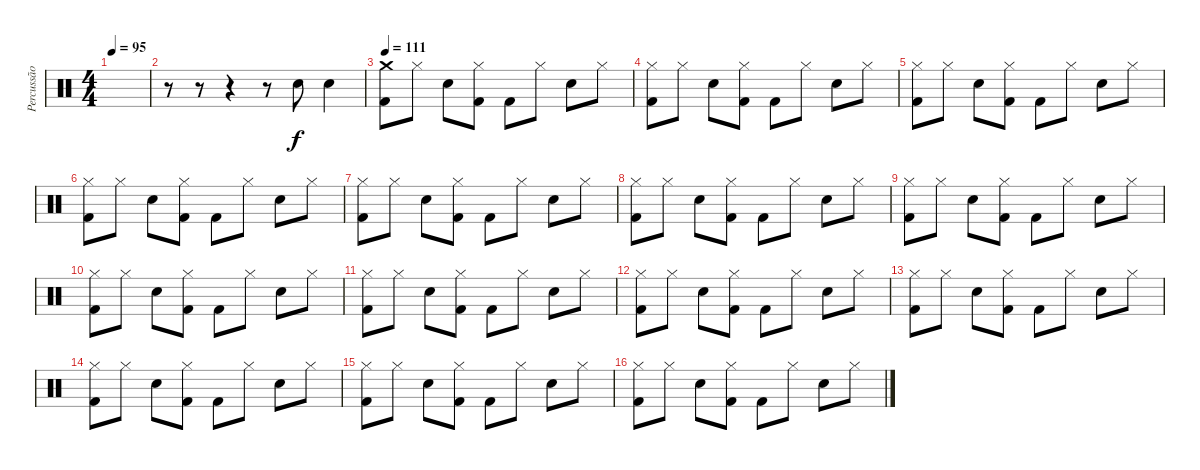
\track ("Percussão" "Percussão") {instrument percussion}
\staff {score}
\articulation defaults
\ts (4 4)
\tempo 95
\clef neutral
\ks c
|
r.8 r.8 r.4 r.8 "Electric Snare (hit)".8 "Electric Snare (hit)".4 |
\tempo 111
("Crash medium (hit)" "Kick (hit) 2").8 "Hi-Hat (closed)".8 "Electric Snare (hit)".8 ("Hi-Hat (closed)" "Kick (hit) 2").8 "Kick (hit) 2".8 "Hi-Hat (closed)".8 "Electric Snare (hit)".8 "Hi-Hat (closed)".8 |
("Hi-Hat (closed)" "Kick (hit) 2").8 "Hi-Hat (closed)".8 "Electric Snare (hit)".8 ("Hi-Hat (closed)" "Kick (hit) 2").8 "Kick (hit) 2".8 "Hi-Hat (closed)".8 "Electric Snare (hit)".8 "Hi-Hat (closed)".8 |
("Hi-Hat (closed)" "Kick (hit) 2").8 "Hi-Hat (closed)".8 "Electric Snare (hit)".8 ("Hi-Hat (closed)" "Kick (hit) 2").8 "Kick (hit) 2".8 "Hi-Hat (closed)".8 "Electric Snare (hit)".8 "Hi-Hat (closed)".8 |
("Hi-Hat (closed)" "Kick (hit) 2").8 "Hi-Hat (closed)".8 "Electric Snare (hit)".8 ("Hi-Hat (closed)" "Kick (hit) 2").8 "Kick (hit) 2".8 "Hi-Hat (closed)".8 "Electric Snare (hit)".8 "Hi-Hat (closed)".8 |
("Hi-Hat (closed)" "Kick (hit) 2").8 "Hi-Hat (closed)".8 "Electric Snare (hit)".8 ("Hi-Hat (closed)" "Kick (hit) 2").8 "Kick (hit) 2".8 "Hi-Hat (closed)".8 "Electric Snare (hit)".8 "Hi-Hat (closed)".8 |
("Hi-Hat (closed)" "Kick (hit) 2").8 "Hi-Hat (closed)".8 "Electric Snare (hit)".8 ("Hi-Hat (closed)" "Kick (hit) 2").8 "Kick (hit) 2".8 "Hi-Hat (closed)".8 "Electric Snare (hit)".8 "Hi-Hat (closed)".8 |
("Hi-Hat (closed)" "Kick (hit) 2").8 "Hi-Hat (closed)".8 "Electric Snare (hit)".8 ("Hi-Hat (closed)" "Kick (hit) 2").8 "Kick (hit) 2".8 "Hi-Hat (closed)".8 "Electric Snare (hit)".8 "Hi-Hat (closed)".8 |
("Hi-Hat (closed)" "Kick (hit) 2").8 "Hi-Hat (closed)".8 "Electric Snare (hit)".8 ("Hi-Hat (closed)" "Kick (hit) 2").8 "Kick (hit) 2".8 "Hi-Hat (closed)".8 "Electric Snare (hit)".8 "Hi-Hat (closed)".8 |
("Hi-Hat (closed)" "Kick (hit) 2").8 "Hi-Hat (closed)".8 "Electric Snare (hit)".8 ("Hi-Hat (closed)" "Kick (hit) 2").8 "Kick (hit) 2".8 "Hi-Hat (closed)".8 "Electric Snare (hit)".8 "Hi-Hat (closed)".8 |
("Hi-Hat (closed)" "Kick (hit) 2").8 "Hi-Hat (closed)".8 "Electric Snare (hit)".8 ("Hi-Hat (closed)" "Kick (hit) 2").8 "Kick (hit) 2".8 "Hi-Hat (closed)".8 "Electric Snare (hit)".8 "Hi-Hat (closed)".8 |
("Hi-Hat (closed)" "Kick (hit) 2").8 "Hi-Hat (closed)".8 "Electric Snare (hit)".8 ("Hi-Hat (closed)" "Kick (hit) 2").8 "Kick (hit) 2".8 "Hi-Hat (closed)".8 "Electric Snare (hit)".8 "Hi-Hat (closed)".8 |
("Hi-Hat (closed)" "Kick (hit) 2").8 "Hi-Hat (closed)".8 "Electric Snare (hit)".8 ("Hi-Hat (closed)" "Kick (hit) 2").8 "Kick (hit) 2".8 "Hi-Hat (closed)".8 "Electric Snare (hit)".8 "Hi-Hat (closed)".8 |
("Hi-Hat (closed)" "Kick (hit) 2").8 "Hi-Hat (closed)".8 "Electric Snare (hit)".8 ("Hi-Hat (closed)" "Kick (hit) 2").8 "Kick (hit) 2".8 "Hi-Hat (closed)".8 "Electric Snare (hit)".8 "Hi-Hat (closed)".8 |
("Hi-Hat (closed)" "Kick (hit) 2").8 "Hi-Hat (closed)".8 "Electric Snare (hit)".8 ("Hi-Hat (closed)" "Kick (hit) 2").8 "Kick (hit) 2".8 "Hi-Hat (closed)".8 "Electric Snare (hit)".8 "Hi-Hat (closed)".8
